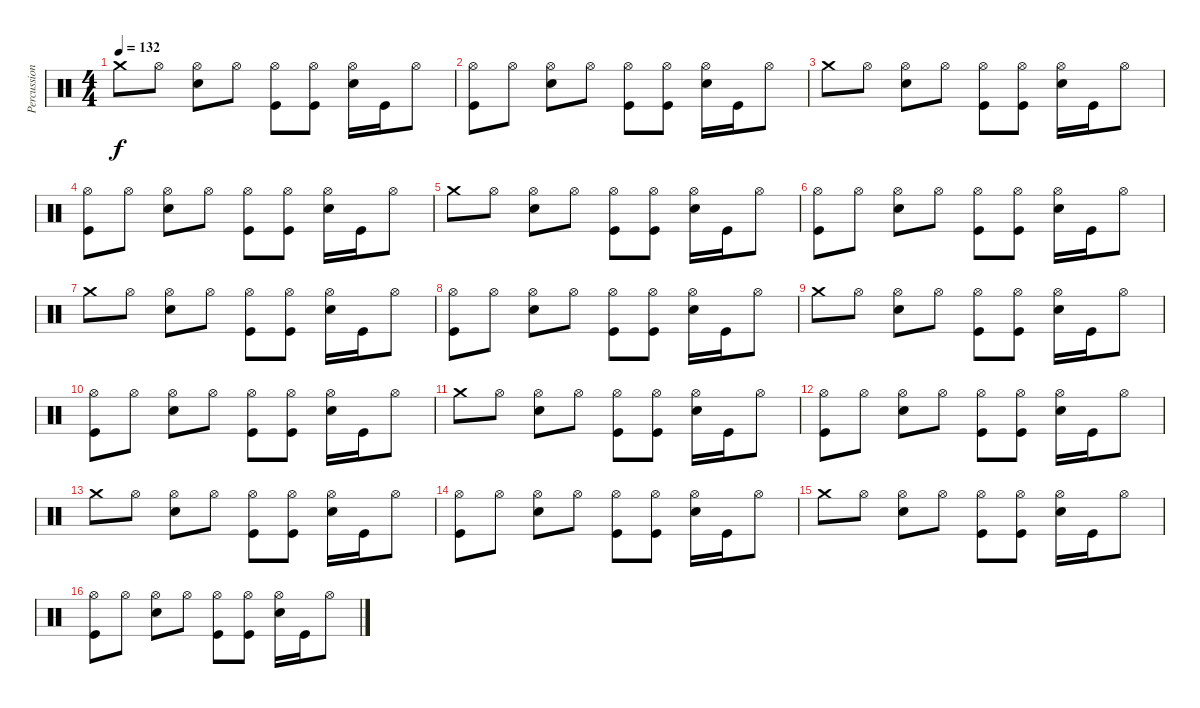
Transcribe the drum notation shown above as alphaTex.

\track ("Percussions" "Percussion") {instrument percussion}
\staff {score}
\articulation defaults
\ts (4 4)
\tempo 132
\clef neutral
\ks c "Crash medium (hit)".8{dy f} "Hi-Hat (open)".8
("Hi-Hat (open)" "Electric Snare (hit)").8 "Hi-Hat (open)".8 ("Hi-Hat (open)" "Kick (hit)").8 ("Hi-Hat (open)" "Kick (hit)").8 ("Hi-Hat (open)" "Electric Snare (hit)").16 "Kick (hit)".16 "Hi-Hat (open)".8 |
("Hi-Hat (open)" "Kick (hit)").8 "Hi-Hat (open)".8 ("Hi-Hat (open)" "Electric Snare (hit)").8 "Hi-Hat (open)".8 ("Hi-Hat (open)" "Kick (hit)").8 ("Hi-Hat (open)" "Kick (hit)").8 ("Hi-Hat (open)" "Electric Snare (hit)").16 "Kick (hit)".16 "Hi-Hat (open)".8 |
"Crash medium (hit)".8 "Hi-Hat (open)".8 ("Hi-Hat (open)" "Electric Snare (hit)").8 "Hi-Hat (open)".8 ("Hi-Hat (open)" "Kick (hit)").8 ("Hi-Hat (open)" "Kick (hit)").8 ("Hi-Hat (open)" "Electric Snare (hit)").16 "Kick (hit)".16 "Hi-Hat (open)".8 |
("Hi-Hat (open)" "Kick (hit)").8 "Hi-Hat (open)".8 ("Hi-Hat (open)" "Electric Snare (hit)").8 "Hi-Hat (open)".8 ("Hi-Hat (open)" "Kick (hit)").8 ("Hi-Hat (open)" "Kick (hit)").8 ("Hi-Hat (open)" "Electric Snare (hit)").16 "Kick (hit)".16 "Hi-Hat (open)".8 |
"Crash medium (hit)".8 "Hi-Hat (open)".8 ("Hi-Hat (open)" "Electric Snare (hit)").8 "Hi-Hat (open)".8 ("Hi-Hat (open)" "Kick (hit)").8 ("Hi-Hat (open)" "Kick (hit)").8 ("Hi-Hat (open)" "Electric Snare (hit)").16 "Kick (hit)".16 "Hi-Hat (open)".8 |
("Hi-Hat (open)" "Kick (hit)").8 "Hi-Hat (open)".8 ("Hi-Hat (open)" "Electric Snare (hit)").8 "Hi-Hat (open)".8 ("Hi-Hat (open)" "Kick (hit)").8 ("Hi-Hat (open)" "Kick (hit)").8 ("Hi-Hat (open)" "Electric Snare (hit)").16 "Kick (hit)".16 "Hi-Hat (open)".8 |
"Crash medium (hit)".8 "Hi-Hat (open)".8 ("Hi-Hat (open)" "Electric Snare (hit)").8 "Hi-Hat (open)".8 ("Hi-Hat (open)" "Kick (hit)").8 ("Hi-Hat (open)" "Kick (hit)").8 ("Hi-Hat (open)" "Electric Snare (hit)").16 "Kick (hit)".16 "Hi-Hat (open)".8 |
("Hi-Hat (open)" "Kick (hit)").8 "Hi-Hat (open)".8 ("Hi-Hat (open)" "Electric Snare (hit)").8 "Hi-Hat (open)".8 ("Hi-Hat (open)" "Kick (hit)").8 ("Hi-Hat (open)" "Kick (hit)").8 ("Hi-Hat (open)" "Electric Snare (hit)").16 "Kick (hit)".16 "Hi-Hat (open)".8 |
"Crash medium (hit)".8 "Hi-Hat (open)".8 ("Hi-Hat (open)" "Electric Snare (hit)").8 "Hi-Hat (open)".8 ("Hi-Hat (open)" "Kick (hit)").8 ("Hi-Hat (open)" "Kick (hit)").8 ("Hi-Hat (open)" "Electric Snare (hit)").16 "Kick (hit)".16 "Hi-Hat (open)".8 |
("Hi-Hat (open)" "Kick (hit)").8 "Hi-Hat (open)".8 ("Hi-Hat (open)" "Electric Snare (hit)").8 "Hi-Hat (open)".8 ("Hi-Hat (open)" "Kick (hit)").8 ("Hi-Hat (open)" "Kick (hit)").8 ("Hi-Hat (open)" "Electric Snare (hit)").16 "Kick (hit)".16 "Hi-Hat (open)".8 |
"Crash medium (hit)".8 "Hi-Hat (open)".8 ("Hi-Hat (open)" "Electric Snare (hit)").8 "Hi-Hat (open)".8 ("Hi-Hat (open)" "Kick (hit)").8 ("Hi-Hat (open)" "Kick (hit)").8 ("Hi-Hat (open)" "Electric Snare (hit)").16 "Kick (hit)".16 "Hi-Hat (open)".8 |
("Hi-Hat (open)" "Kick (hit)").8 "Hi-Hat (open)".8 ("Hi-Hat (open)" "Electric Snare (hit)").8 "Hi-Hat (open)".8 ("Hi-Hat (open)" "Kick (hit)").8 ("Hi-Hat (open)" "Kick (hit)").8 ("Hi-Hat (open)" "Electric Snare (hit)").16 "Kick (hit)".16 "Hi-Hat (open)".8 |
"Crash medium (hit)".8 "Hi-Hat (open)".8 ("Hi-Hat (open)" "Electric Snare (hit)").8 "Hi-Hat (open)".8 ("Hi-Hat (open)" "Kick (hit)").8 ("Hi-Hat (open)" "Kick (hit)").8 ("Hi-Hat (open)" "Electric Snare (hit)").16 "Kick (hit)".16 "Hi-Hat (open)".8 |
("Hi-Hat (open)" "Kick (hit)").8 "Hi-Hat (open)".8 ("Hi-Hat (open)" "Electric Snare (hit)").8 "Hi-Hat (open)".8 ("Hi-Hat (open)" "Kick (hit)").8 ("Hi-Hat (open)" "Kick (hit)").8 ("Hi-Hat (open)" "Electric Snare (hit)").16 "Kick (hit)".16 "Hi-Hat (open)".8 |
"Crash medium (hit)".8 "Hi-Hat (open)".8 ("Hi-Hat (open)" "Electric Snare (hit)").8 "Hi-Hat (open)".8 ("Hi-Hat (open)" "Kick (hit)").8 ("Hi-Hat (open)" "Kick (hit)").8 ("Hi-Hat (open)" "Electric Snare (hit)").16 "Kick (hit)".16 "Hi-Hat (open)".8 |
("Hi-Hat (open)" "Kick (hit)").8 "Hi-Hat (open)".8 ("Hi-Hat (open)" "Electric Snare (hit)").8 "Hi-Hat (open)".8 ("Hi-Hat (open)" "Kick (hit)").8 ("Hi-Hat (open)" "Kick (hit)").8 ("Hi-Hat (open)" "Electric Snare (hit)").16 "Kick (hit)".16 "Hi-Hat (open)".8
